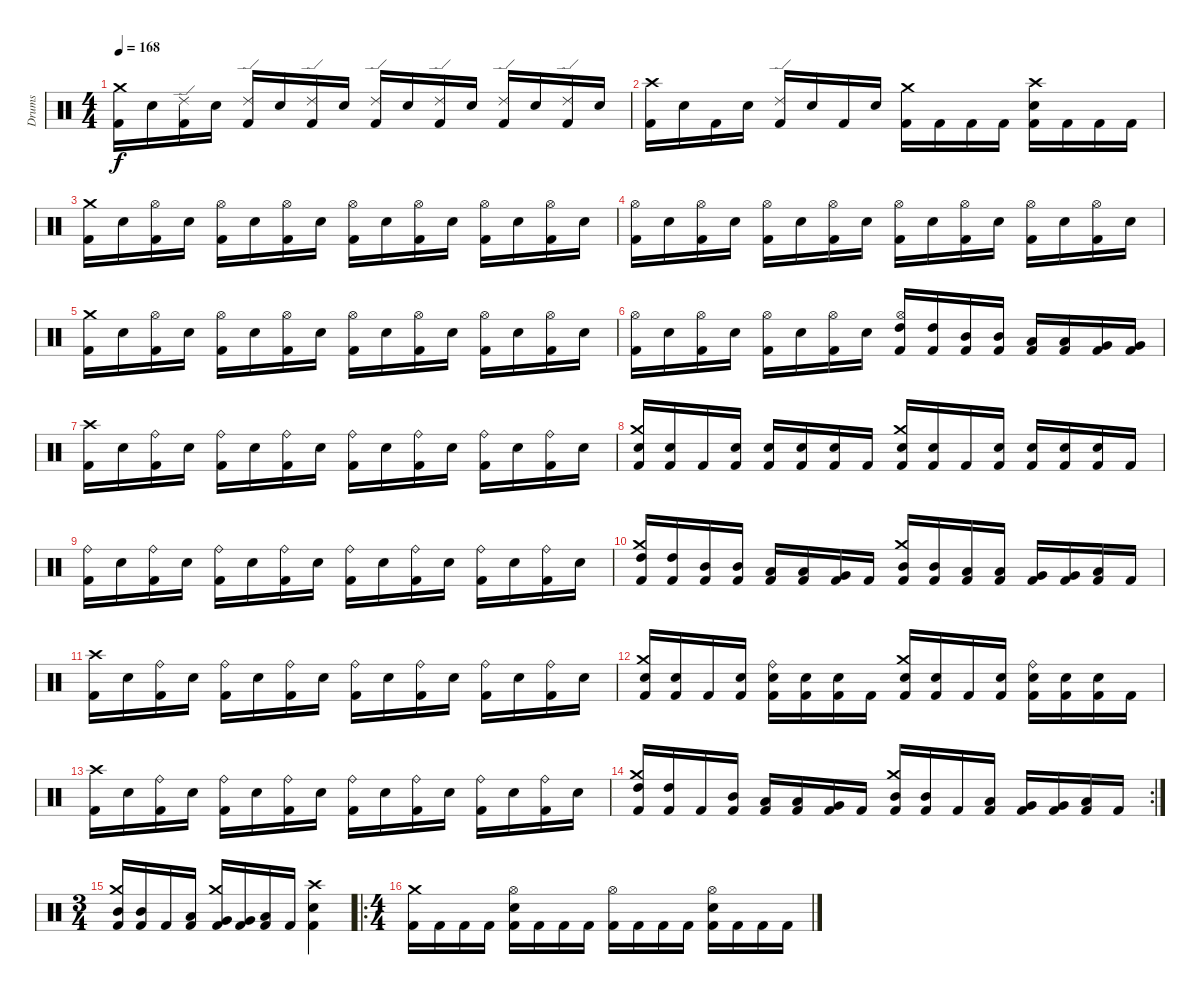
\track ("Drums" "Drums") {instrument percussion}
\staff {score}
\articulation defaults
\ts (4 4)
\tempo 168
\clef neutral
\ks c
("Kick (hit) 2" "Crash medium (hit)").16{dy f} "Snare (hit) 2".16 ("Kick (hit) 2" "Ride (edge) 2").16 "Snare (hit) 2".16 ("Kick (hit) 2" "Ride (edge) 2").16 "Snare (hit) 2".16 ("Kick (hit) 2" "Ride (edge) 2").16 "Snare (hit) 2".16 ("Kick (hit) 2" "Ride (edge) 2").16 "Snare (hit) 2".16 ("Kick (hit) 2" "Ride (edge) 2").16 "Snare (hit) 2".16 ("Kick (hit) 2" "Ride (edge) 2").16 "Snare (hit) 2".16 ("Kick (hit) 2" "Ride (edge) 2").16 "Snare (hit) 2".16 |
("Kick (hit) 2" "Crash high (hit)").16 "Snare (hit) 2".16 "Kick (hit) 2".16 "Snare (hit) 2".16 ("Kick (hit) 2" "Ride (edge) 2").16 "Snare (hit) 2".16 "Kick (hit) 2".16 "Snare (hit) 2".16 ("Kick (hit) 2" "Crash medium (hit)").16 "Kick (hit) 2".16 "Kick (hit) 2".16 "Kick (hit) 2".16 ("Kick (hit) 2" "Snare (hit) 2" "Crash high (hit)").16 "Kick (hit) 2".16 "Kick (hit) 2".16 "Kick (hit) 2".16 |
("Kick (hit) 2" "Crash medium (hit)").16 "Snare (hit) 2".16 ("Kick (hit) 2" "Hi-Hat (open)").16 "Snare (hit) 2".16 ("Kick (hit) 2" "Hi-Hat (open)").16 "Snare (hit) 2".16 ("Kick (hit) 2" "Hi-Hat (open)").16 "Snare (hit) 2".16 ("Kick (hit) 2" "Hi-Hat (open)").16 "Snare (hit) 2".16 ("Kick (hit) 2" "Hi-Hat (open)").16 "Snare (hit) 2".16 ("Kick (hit) 2" "Hi-Hat (open)").16 "Snare (hit) 2".16 ("Kick (hit) 2" "Hi-Hat (open)").16 "Snare (hit) 2".16 |
("Kick (hit) 2" "Hi-Hat (open)").16 "Snare (hit) 2".16 ("Kick (hit) 2" "Hi-Hat (open)").16 "Snare (hit) 2".16 ("Kick (hit) 2" "Hi-Hat (open)").16 "Snare (hit) 2".16 ("Kick (hit) 2" "Hi-Hat (open)").16 "Snare (hit) 2".16 ("Kick (hit) 2" "Hi-Hat (open)").16 "Snare (hit) 2".16 ("Kick (hit) 2" "Hi-Hat (open)").16 "Snare (hit) 2".16 ("Kick (hit) 2" "Hi-Hat (open)").16 "Snare (hit) 2".16 ("Kick (hit) 2" "Hi-Hat (open)").16 "Snare (hit) 2".16 |
("Kick (hit) 2" "Crash medium (hit)").16 "Snare (hit) 2".16 ("Kick (hit) 2" "Hi-Hat (open)").16 "Snare (hit) 2".16 ("Kick (hit) 2" "Hi-Hat (open)").16 "Snare (hit) 2".16 ("Kick (hit) 2" "Hi-Hat (open)").16 "Snare (hit) 2".16 ("Kick (hit) 2" "Hi-Hat (open)").16 "Snare (hit) 2".16 ("Kick (hit) 2" "Hi-Hat (open)").16 "Snare (hit) 2".16 ("Kick (hit) 2" "Hi-Hat (open)").16 "Snare (hit) 2".16 ("Kick (hit) 2" "Hi-Hat (open)").16 "Snare (hit) 2".16 |
("Kick (hit) 2" "Hi-Hat (open)").16 "Snare (hit) 2".16 ("Kick (hit) 2" "Hi-Hat (open)").16 "Snare (hit) 2".16 ("Kick (hit) 2" "Hi-Hat (open)").16 "Snare (hit) 2".16 ("Kick (hit) 2" "Hi-Hat (open)").16 "Snare (hit) 2".16 ("Kick (hit) 2" "High Tom (hit)" "Hi-Hat (open)").16 ("Kick (hit) 2" "High Tom (hit)").16 ("Kick (hit) 2" "Mid Tom (hit)").16 ("Kick (hit) 2" "Mid Tom (hit)").16 ("Kick (hit) 2" "Low Tom (hit)").16 ("Kick (hit) 2" "Low Tom (hit)").16 ("Kick (hit) 2" "Very Low Tom (hit)").16 ("Kick (hit) 2" "Very Low Tom (hit)").16 |
("Kick (hit) 2" "Crash high (hit)").16 "Snare (hit) 2".16 ("Kick (hit) 2" "Ride (bell)").16 "Snare (hit) 2".16 ("Kick (hit) 2" "Ride (bell)").16 "Snare (hit) 2".16 ("Kick (hit) 2" "Ride (bell)").16 "Snare (hit) 2".16 ("Kick (hit) 2" "Ride (bell)").16 "Snare (hit) 2".16 ("Kick (hit) 2" "Ride (bell)").16 "Snare (hit) 2".16 ("Kick (hit) 2" "Ride (bell)").16 "Snare (hit) 2".16 ("Kick (hit) 2" "Ride (bell)").16 "Snare (hit) 2".16 |
("Kick (hit) 2" "Snare (hit) 2" "Crash medium (hit)").16 ("Kick (hit) 2" "Snare (hit) 2").16 "Kick (hit) 2".16 ("Kick (hit) 2" "Snare (hit) 2").16 ("Kick (hit) 2" "Snare (hit) 2").16 ("Kick (hit) 2" "Snare (hit) 2").16 ("Kick (hit) 2" "Snare (hit) 2").16 "Kick (hit) 2".16 ("Kick (hit) 2" "Snare (hit) 2" "Crash medium (hit)").16 ("Kick (hit) 2" "Snare (hit) 2").16 "Kick (hit) 2".16 ("Kick (hit) 2" "Snare (hit) 2").16 ("Kick (hit) 2" "Snare (hit) 2").16 ("Kick (hit) 2" "Snare (hit) 2").16 ("Kick (hit) 2" "Snare (hit) 2").16 "Kick (hit) 2".16 |
("Kick (hit) 2" "Ride (bell)").16 "Snare (hit) 2".16 ("Kick (hit) 2" "Ride (bell)").16 "Snare (hit) 2".16 ("Kick (hit) 2" "Ride (bell)").16 "Snare (hit) 2".16 ("Kick (hit) 2" "Ride (bell)").16 "Snare (hit) 2".16 ("Kick (hit) 2" "Ride (bell)").16 "Snare (hit) 2".16 ("Kick (hit) 2" "Ride (bell)").16 "Snare (hit) 2".16 ("Kick (hit) 2" "Ride (bell)").16 "Snare (hit) 2".16 ("Kick (hit) 2" "Ride (bell)").16 "Snare (hit) 2".16 |
("Kick (hit) 2" "High Tom (hit)" "Crash medium (hit)").16 ("Kick (hit) 2" "High Tom (hit)").16 ("Kick (hit) 2" "Mid Tom (hit)").16 ("Kick (hit) 2" "Mid Tom (hit)").16 ("Kick (hit) 2" "Low Tom (hit)").16 ("Kick (hit) 2" "Low Tom (hit)").16 ("Kick (hit) 2" "Very Low Tom (hit)").16 "Kick (hit) 2".16 ("Kick (hit) 2" "Mid Tom (hit)" "Crash medium (hit)").16 ("Kick (hit) 2" "Mid Tom (hit)").16 ("Kick (hit) 2" "Low Tom (hit)").16 ("Kick (hit) 2" "Low Tom (hit)").16 ("Kick (hit) 2" "Very Low Tom (hit)").16 ("Kick (hit) 2" "Very Low Tom (hit)").16 ("Kick (hit) 2" "Low Floor Tom (hit)").16 "Kick (hit) 2".16 |
("Kick (hit) 2" "Crash high (hit)").16 "Snare (hit) 2".16 ("Kick (hit) 2" "Ride (bell)").16 "Snare (hit) 2".16 ("Kick (hit) 2" "Ride (bell)").16 "Snare (hit) 2".16 ("Kick (hit) 2" "Ride (bell)").16 "Snare (hit) 2".16 ("Kick (hit) 2" "Ride (bell)").16 "Snare (hit) 2".16 ("Kick (hit) 2" "Ride (bell)").16 "Snare (hit) 2".16 ("Kick (hit) 2" "Ride (bell)").16 "Snare (hit) 2".16 ("Kick (hit) 2" "Ride (bell)").16 "Snare (hit) 2".16 |
("Kick (hit) 2" "Snare (hit) 2" "Crash medium (hit)").16 ("Kick (hit) 2" "Snare (hit) 2").16 "Kick (hit) 2".16 ("Kick (hit) 2" "Snare (hit) 2").16 ("Kick (hit) 2" "Snare (hit) 2" "Ride (bell)").16 ("Kick (hit) 2" "Snare (hit) 2").16 ("Kick (hit) 2" "Snare (hit) 2").16 "Kick (hit) 2".16 ("Kick (hit) 2" "Snare (hit) 2" "Crash medium (hit)").16 ("Kick (hit) 2" "Snare (hit) 2").16 "Kick (hit) 2".16 ("Kick (hit) 2" "Snare (hit) 2").16 ("Kick (hit) 2" "Snare (hit) 2" "Ride (bell)").16 ("Kick (hit) 2" "Snare (hit) 2").16 ("Kick (hit) 2" "Snare (hit) 2").16 "Kick (hit) 2".16 |
("Kick (hit) 2" "Crash high (hit)").16 "Snare (hit) 2".16 ("Kick (hit) 2" "Ride (bell)").16 "Snare (hit) 2".16 ("Kick (hit) 2" "Ride (bell)").16 "Snare (hit) 2".16 ("Kick (hit) 2" "Ride (bell)").16 "Snare (hit) 2".16 ("Kick (hit) 2" "Ride (bell)").16 "Snare (hit) 2".16 ("Kick (hit) 2" "Ride (bell)").16 "Snare (hit) 2".16 ("Kick (hit) 2" "Ride (bell)").16 "Snare (hit) 2".16 ("Kick (hit) 2" "Ride (bell)").16 "Snare (hit) 2".16 |
\rc 2
("Kick (hit) 2" "High Tom (hit)" "Crash medium (hit)").16 ("Kick (hit) 2" "High Tom (hit)").16 "Kick (hit) 2".16 ("Kick (hit) 2" "Mid Tom (hit)").16 ("Kick (hit) 2" "Low Tom (hit)").16 ("Kick (hit) 2" "Low Tom (hit)").16 ("Kick (hit) 2" "Very Low Tom (hit)").16 "Kick (hit) 2".16 ("Kick (hit) 2" "Mid Tom (hit)" "Crash medium (hit)").16 ("Kick (hit) 2" "Mid Tom (hit)").16 "Kick (hit) 2".16 ("Kick (hit) 2" "Low Tom (hit)").16 ("Kick (hit) 2" "Very Low Tom (hit)").16 ("Kick (hit) 2" "Very Low Tom (hit)").16 ("Kick (hit) 2" "Low Floor Tom (hit)").16 "Kick (hit) 2".16 |
\ts (3 4)
("Kick (hit) 2" "Mid Tom (hit)" "Crash medium (hit)").16 ("Kick (hit) 2" "Mid Tom (hit)").16 "Kick (hit) 2".16 ("Kick (hit) 2" "Low Tom (hit)").16 ("Kick (hit) 2" "Very Low Tom (hit)" "Crash medium (hit)").16 ("Kick (hit) 2" "Very Low Tom (hit)").16 ("Kick (hit) 2" "Low Floor Tom (hit)").16 "Kick (hit) 2".16 ("Kick (hit) 2" "Snare (hit) 2" "Crash high (hit)").4 |
\ro
\ts (4 4)
("Kick (hit) 2" "Crash medium (hit)").16 "Kick (hit) 2".16 "Kick (hit) 2".16 "Kick (hit) 2".16 ("Kick (hit) 2" "Snare (hit) 2" "Hi-Hat (open)").16 "Kick (hit) 2".16 "Kick (hit) 2".16 "Kick (hit) 2".16 ("Kick (hit) 2" "Hi-Hat (open)").16 "Kick (hit) 2".16 "Kick (hit) 2".16 "Kick (hit) 2".16 ("Kick (hit) 2" "Snare (hit) 2" "Hi-Hat (open)").16 "Kick (hit) 2".16 "Kick (hit) 2".16 "Kick (hit) 2".16
